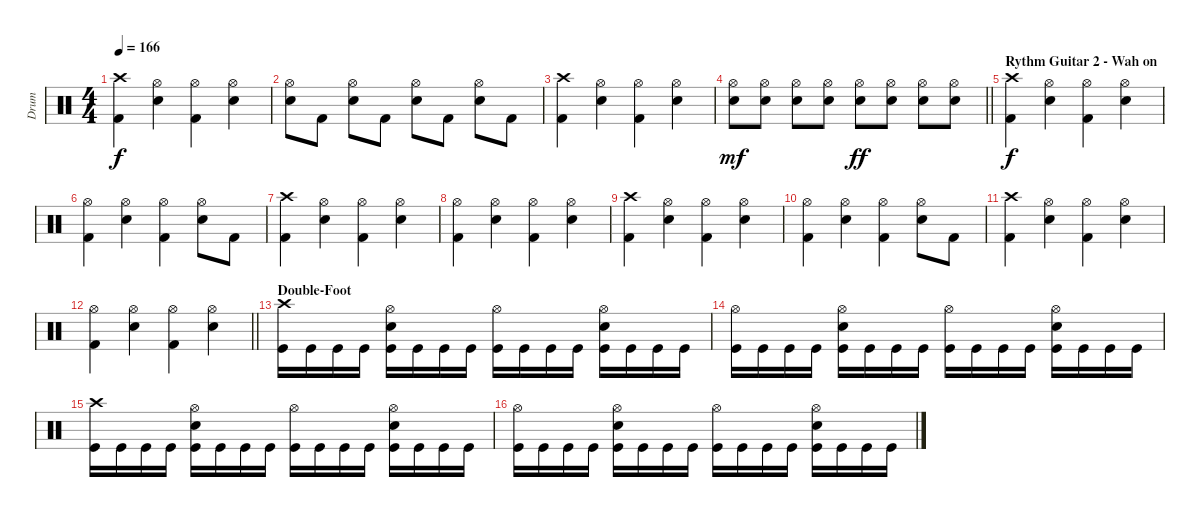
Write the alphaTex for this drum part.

\track ("Drum" "Drum") {instrument percussion}
\staff {score}
\articulation defaults
\ts (4 4)
\tempo 166
\clef neutral
\ks c
("Crash high (hit)" "Kick (hit) 2").4{dy f} ("Hi-Hat (open)" "Snare (hit) 2").4 ("Hi-Hat (open)" "Kick (hit) 2").4 ("Hi-Hat (open)" "Snare (hit) 2").4 |
("Hi-Hat (open)" "Snare (hit) 2").8 "Kick (hit) 2".8 ("Hi-Hat (open)" "Snare (hit) 2").8 "Kick (hit) 2".8 ("Hi-Hat (open)" "Snare (hit) 2").8 "Kick (hit) 2".8 ("Hi-Hat (open)" "Snare (hit) 2").8 "Kick (hit) 2".8 |
("Crash high (hit)" "Kick (hit) 2").4 ("Hi-Hat (open)" "Snare (hit) 2").4 ("Hi-Hat (open)" "Kick (hit) 2").4 ("Hi-Hat (open)" "Snare (hit) 2").4 |
\barLineRight lightlight
("Hi-Hat (open)" "Snare (hit) 2").8{dy mf} ("Hi-Hat (open)" "Snare (hit) 2").8 ("Hi-Hat (open)" "Snare (hit) 2").8 ("Hi-Hat (open)" "Snare (hit) 2").8 ("Hi-Hat (open)" "Snare (hit) 2").8{dy ff} ("Hi-Hat (open)" "Snare (hit) 2").8 ("Hi-Hat (open)" "Snare (hit) 2").8 ("Hi-Hat (open)" "Snare (hit) 2").8 |
\section ("" "Rythm Guitar 2 - Wah on")
("Crash high (hit)" "Kick (hit) 2").4{dy f} ("Hi-Hat (open)" "Snare (hit) 2").4 ("Hi-Hat (open)" "Kick (hit) 2").4 ("Hi-Hat (open)" "Snare (hit) 2").4 |
("Hi-Hat (open)" "Kick (hit) 2").4 ("Hi-Hat (open)" "Snare (hit) 2").4 ("Hi-Hat (open)" "Kick (hit) 2").4 ("Hi-Hat (open)" "Snare (hit) 2").8 "Kick (hit) 2".8 |
("Crash high (hit)" "Kick (hit) 2").4 ("Hi-Hat (open)" "Snare (hit) 2").4 ("Hi-Hat (open)" "Kick (hit) 2").4 ("Hi-Hat (open)" "Snare (hit) 2").4 |
("Hi-Hat (open)" "Kick (hit) 2").4 ("Hi-Hat (open)" "Snare (hit) 2").4 ("Hi-Hat (open)" "Kick (hit) 2").4 ("Hi-Hat (open)" "Snare (hit) 2").4 |
("Crash high (hit)" "Kick (hit) 2").4 ("Hi-Hat (open)" "Snare (hit) 2").4 ("Hi-Hat (open)" "Kick (hit) 2").4 ("Hi-Hat (open)" "Snare (hit) 2").4 |
("Hi-Hat (open)" "Kick (hit) 2").4 ("Hi-Hat (open)" "Snare (hit) 2").4 ("Hi-Hat (open)" "Kick (hit) 2").4 ("Hi-Hat (open)" "Snare (hit) 2").8 "Kick (hit) 2".8 |
("Crash high (hit)" "Kick (hit) 2").4 ("Hi-Hat (open)" "Snare (hit) 2").4 ("Hi-Hat (open)" "Kick (hit) 2").4 ("Hi-Hat (open)" "Snare (hit) 2").4 |
\barLineRight lightlight
("Hi-Hat (open)" "Kick (hit) 2").4 ("Hi-Hat (open)" "Snare (hit) 2").4 ("Hi-Hat (open)" "Kick (hit) 2").4 ("Hi-Hat (open)" "Snare (hit) 2").4 |
\section ("" "Double-Foot")
("Crash high (hit)" "Kick (hit)").16 "Kick (hit)".16 "Kick (hit)".16 "Kick (hit)".16 ("Hi-Hat (open)" "Snare (hit) 2" "Kick (hit)").16 "Kick (hit)".16 "Kick (hit)".16 "Kick (hit)".16 ("Hi-Hat (open)" "Kick (hit)").16 "Kick (hit)".16 "Kick (hit)".16 "Kick (hit)".16 ("Hi-Hat (open)" "Snare (hit) 2" "Kick (hit)").16 "Kick (hit)".16 "Kick (hit)".16 "Kick (hit)".16 |
("Hi-Hat (open)" "Kick (hit)").16 "Kick (hit)".16 "Kick (hit)".16 "Kick (hit)".16 ("Hi-Hat (open)" "Snare (hit) 2" "Kick (hit)").16 "Kick (hit)".16 "Kick (hit)".16 "Kick (hit)".16 ("Hi-Hat (open)" "Kick (hit)").16 "Kick (hit)".16 "Kick (hit)".16 "Kick (hit)".16 ("Hi-Hat (open)" "Snare (hit) 2" "Kick (hit)").16 "Kick (hit)".16 "Kick (hit)".16 "Kick (hit)".16 |
("Crash high (hit)" "Kick (hit)").16 "Kick (hit)".16 "Kick (hit)".16 "Kick (hit)".16 ("Hi-Hat (open)" "Snare (hit) 2" "Kick (hit)").16 "Kick (hit)".16 "Kick (hit)".16 "Kick (hit)".16 ("Hi-Hat (open)" "Kick (hit)").16 "Kick (hit)".16 "Kick (hit)".16 "Kick (hit)".16 ("Hi-Hat (open)" "Snare (hit) 2" "Kick (hit)").16 "Kick (hit)".16 "Kick (hit)".16 "Kick (hit)".16 |
("Hi-Hat (open)" "Kick (hit)").16 "Kick (hit)".16 "Kick (hit)".16 "Kick (hit)".16 ("Hi-Hat (open)" "Snare (hit) 2" "Kick (hit)").16 "Kick (hit)".16 "Kick (hit)".16 "Kick (hit)".16 ("Hi-Hat (open)" "Kick (hit)").16 "Kick (hit)".16 "Kick (hit)".16 "Kick (hit)".16 ("Hi-Hat (open)" "Snare (hit) 2" "Kick (hit)").16 "Kick (hit)".16 "Kick (hit)".16 "Kick (hit)".16
